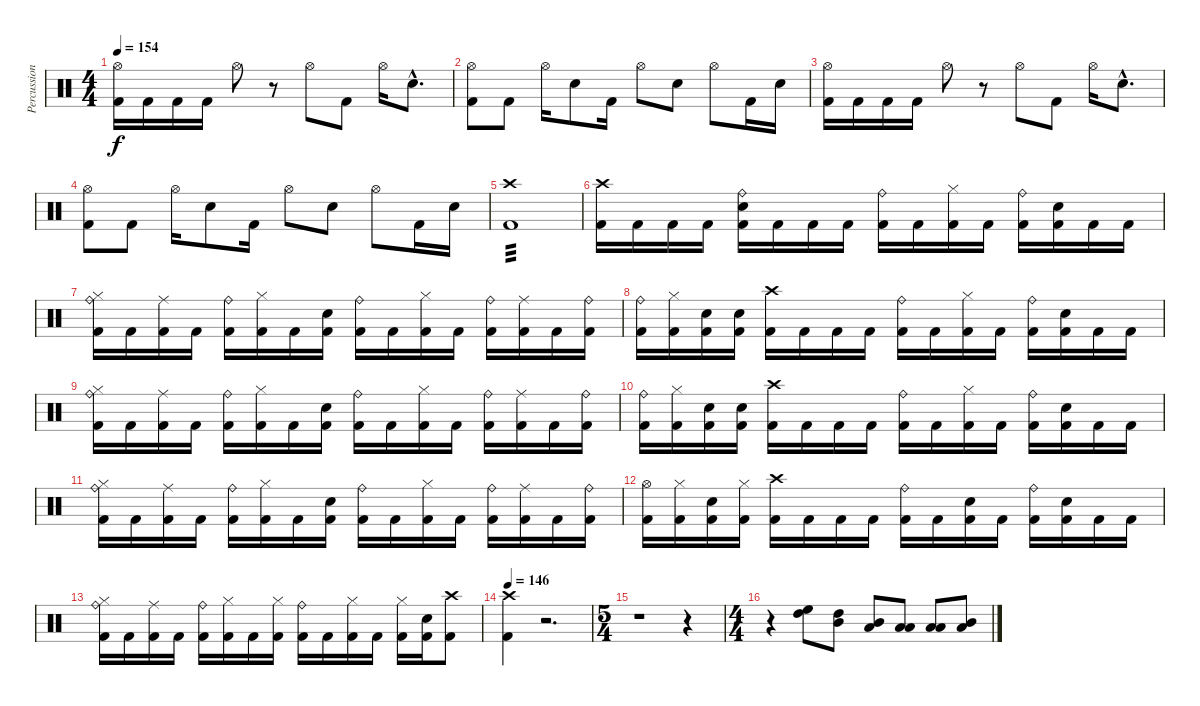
\track ("Percussion" "Percussion") {instrument percussion}
\staff {score}
\articulation defaults
\ts (4 4)
\tempo 154
\clef neutral
\ks c
("Hi-Hat (open)" "Kick (hit) 2").16{dy f} "Kick (hit) 2".16 "Kick (hit) 2".16 "Kick (hit) 2".16 "Hi-Hat (open)".8 r.8 "Hi-Hat (open)".8 "Kick (hit) 2".8 "Hi-Hat (open)".16 "Electric Snare (hit)"{hac}.8{d} |
("Hi-Hat (open)" "Kick (hit) 2").8 "Kick (hit) 2".8 "Hi-Hat (open)".16 "Electric Snare (hit)".8 "Kick (hit) 2".16 "Hi-Hat (open)".8 "Electric Snare (hit)".8 "Hi-Hat (open)".8 "Kick (hit) 2".16 "Electric Snare (hit)".16 |
("Hi-Hat (open)" "Kick (hit) 2").16 "Kick (hit) 2".16 "Kick (hit) 2".16 "Kick (hit) 2".16 "Hi-Hat (open)".8 r.8 "Hi-Hat (open)".8 "Kick (hit) 2".8 "Hi-Hat (open)".16 "Electric Snare (hit)"{hac}.8{d} |
("Hi-Hat (open)" "Kick (hit) 2").8 "Kick (hit) 2".8 "Hi-Hat (open)".16 "Electric Snare (hit)".8 "Kick (hit) 2".16 "Hi-Hat (open)".8 "Electric Snare (hit)".8 "Hi-Hat (open)".8 "Kick (hit) 2".16 "Electric Snare (hit)".16 |
("Crash high (hit)" "Kick (hit) 2").1{tp 3} |
("Crash high (hit)" "Kick (hit) 2").16 "Kick (hit) 2".16 "Kick (hit) 2".16 "Kick (hit) 2".16 ("Ride (bell)" "Electric Snare (hit)" "Kick (hit) 2").16 "Kick (hit) 2".16 "Kick (hit) 2".16 "Kick (hit) 2".16 ("Ride (bell)" "Kick (hit) 2").16 "Kick (hit) 2".16 ("Hi-Hat (closed)" "Kick (hit) 2").16 "Kick (hit) 2".16 ("Ride (bell)" "Kick (hit) 2").16 ("Electric Snare (hit)" "Kick (hit) 2").16 "Kick (hit) 2".16 "Kick (hit) 2".16 |
("Ride (bell)" "Hi-Hat (closed)" "Kick (hit) 2").16 "Kick (hit) 2".16 ("Ride (middle)" "Kick (hit) 2").16 "Kick (hit) 2".16 ("Ride (bell)" "Kick (hit) 2").16 ("Hi-Hat (closed)" "Kick (hit) 2").16 "Kick (hit) 2".16 ("Electric Snare (hit)" "Kick (hit) 2").16 ("Ride (bell)" "Kick (hit) 2").16 "Kick (hit) 2".16 ("Hi-Hat (closed)" "Kick (hit) 2").16 "Kick (hit) 2".16 ("Ride (bell)" "Kick (hit) 2").16 ("Ride (middle)" "Kick (hit) 2").16 "Kick (hit) 2".16 ("Ride (bell)" "Kick (hit) 2").16 |
("Ride (bell)" "Kick (hit) 2").16 ("Hi-Hat (closed)" "Kick (hit) 2").16 ("Electric Snare (hit)" "Kick (hit) 2").16 ("Electric Snare (hit)" "Kick (hit) 2").16 ("Crash high (hit)" "Kick (hit) 2").16 "Kick (hit) 2".16 "Kick (hit) 2".16 "Kick (hit) 2".16 ("Ride (bell)" "Kick (hit) 2").16 "Kick (hit) 2".16 ("Hi-Hat (closed)" "Kick (hit) 2").16 "Kick (hit) 2".16 ("Ride (bell)" "Kick (hit) 2").16 ("Electric Snare (hit)" "Kick (hit) 2").16 "Kick (hit) 2".16 "Kick (hit) 2".16 |
("Ride (bell)" "Hi-Hat (closed)" "Kick (hit) 2").16 "Kick (hit) 2".16 ("Ride (middle)" "Kick (hit) 2").16 "Kick (hit) 2".16 ("Ride (bell)" "Kick (hit) 2").16 ("Hi-Hat (closed)" "Kick (hit) 2").16 "Kick (hit) 2".16 ("Electric Snare (hit)" "Kick (hit) 2").16 ("Ride (bell)" "Kick (hit) 2").16 "Kick (hit) 2".16 ("Hi-Hat (closed)" "Kick (hit) 2").16 "Kick (hit) 2".16 ("Ride (bell)" "Kick (hit) 2").16 ("Ride (middle)" "Kick (hit) 2").16 "Kick (hit) 2".16 ("Ride (bell)" "Kick (hit) 2").16 |
("Ride (bell)" "Kick (hit) 2").16 ("Hi-Hat (closed)" "Kick (hit) 2").16 ("Electric Snare (hit)" "Kick (hit) 2").16 ("Electric Snare (hit)" "Kick (hit) 2").16 ("Crash high (hit)" "Kick (hit) 2").16 "Kick (hit) 2".16 "Kick (hit) 2".16 "Kick (hit) 2".16 ("Ride (bell)" "Kick (hit) 2").16 "Kick (hit) 2".16 ("Hi-Hat (closed)" "Kick (hit) 2").16 "Kick (hit) 2".16 ("Ride (bell)" "Kick (hit) 2").16 ("Electric Snare (hit)" "Kick (hit) 2").16 "Kick (hit) 2".16 "Kick (hit) 2".16 |
("Ride (bell)" "Hi-Hat (closed)" "Kick (hit) 2").16 "Kick (hit) 2".16 ("Ride (middle)" "Kick (hit) 2").16 "Kick (hit) 2".16 ("Ride (bell)" "Kick (hit) 2").16 ("Hi-Hat (closed)" "Kick (hit) 2").16 "Kick (hit) 2".16 ("Electric Snare (hit)" "Kick (hit) 2").16 ("Ride (bell)" "Kick (hit) 2").16 "Kick (hit) 2".16 ("Hi-Hat (closed)" "Kick (hit) 2").16 "Kick (hit) 2".16 ("Ride (bell)" "Kick (hit) 2").16 ("Ride (middle)" "Kick (hit) 2").16 "Kick (hit) 2".16 ("Ride (bell)" "Kick (hit) 2").16 |
("Hi-Hat (open)" "Kick (hit) 2").16 ("Hi-Hat (closed)" "Kick (hit) 2").16 ("Electric Snare (hit)" "Kick (hit) 2").16 ("Hi-Hat (closed)" "Kick (hit) 2").16 ("Crash high (hit)" "Kick (hit) 2").16 "Kick (hit) 2".16 "Kick (hit) 2".16 "Kick (hit) 2".16 ("Ride (bell)" "Kick (hit) 2").16 "Kick (hit) 2".16 ("Electric Snare (hit)" "Kick (hit) 2").16 "Kick (hit) 2".16 ("Ride (bell)" "Kick (hit) 2").16 ("Electric Snare (hit)" "Kick (hit) 2").16 "Kick (hit) 2".16 "Kick (hit) 2".16 |
("Ride (bell)" "Hi-Hat (closed)" "Kick (hit) 2").16 "Kick (hit) 2".16 ("Ride (middle)" "Kick (hit) 2").16 "Kick (hit) 2".16 ("Ride (bell)" "Kick (hit) 2").16 ("Hi-Hat (closed)" "Kick (hit) 2").16 "Kick (hit) 2".16 ("Hi-Hat (closed)" "Kick (hit) 2").16 ("Ride (bell)" "Kick (hit) 2").16 "Kick (hit) 2".16 ("Hi-Hat (closed)" "Kick (hit) 2").16 "Kick (hit) 2".16 ("Hi-Hat (closed)" "Kick (hit) 2").16 ("Electric Snare (hit)" "Kick (hit) 2").16 ("Crash high (hit)" "Kick (hit) 2").8 |
\tempo 146
("Crash high (hit)" "Kick (hit) 2").4 r.2{d} |
\ts (5 4)
r.1 r.4 |
\ts (4 4)
r.4 ("High Floor Tom (hit)" "High Tom (hit)").8 ("High Tom (hit)" "Mid Tom (hit)").8 ("Mid Tom (hit)" "Low Tom (hit)").8 ("Low Tom (hit)" "Low Floor Tom (hit)").8 ("Low Tom (hit)" "Low Floor Tom (hit)").8 ("Mid Tom (hit)" "Low Floor Tom (hit)").8
